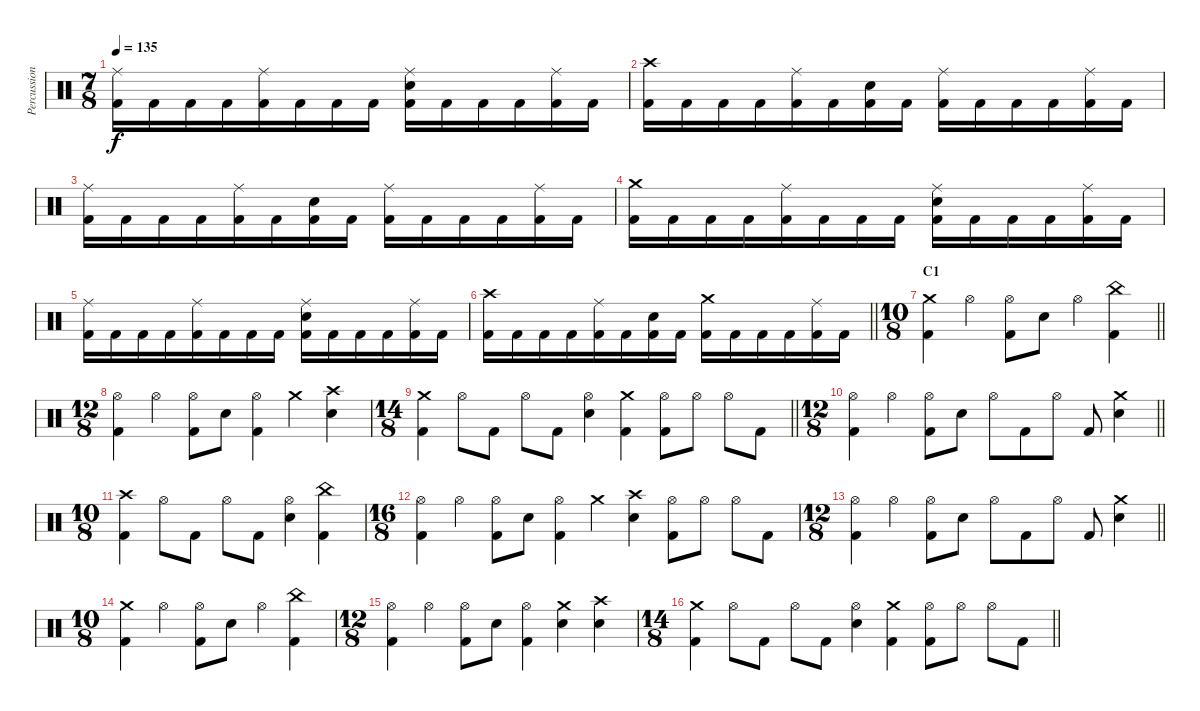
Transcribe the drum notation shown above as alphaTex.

\track ("Percussion" "Percussion") {instrument percussion}
\staff {score}
\articulation defaults
\ts (7 8)
\tempo 135
\clef neutral
\ks c
("Ride (middle)" "Kick (hit) 2").16{dy f} "Kick (hit) 2".16 "Kick (hit) 2".16 "Kick (hit) 2".16 ("Ride (middle)" "Kick (hit) 2").16 "Kick (hit) 2".16 "Kick (hit) 2".16 "Kick (hit) 2".16 ("Ride (middle)" "Snare (hit) 2" "Kick (hit) 2").16 "Kick (hit) 2".16 "Kick (hit) 2".16 "Kick (hit) 2".16 ("Ride (middle)" "Kick (hit) 2").16 "Kick (hit) 2".16 |
("Crash high (hit)" "Kick (hit) 2").16 "Kick (hit) 2".16 "Kick (hit) 2".16 "Kick (hit) 2".16 ("Ride (middle)" "Kick (hit) 2").16 "Kick (hit) 2".16 ("Snare (hit) 2" "Kick (hit) 2").16 "Kick (hit) 2".16 ("Ride (middle)" "Kick (hit) 2").16 "Kick (hit) 2".16 "Kick (hit) 2".16 "Kick (hit) 2".16 ("Ride (middle)" "Kick (hit) 2").16 "Kick (hit) 2".16 |
("Ride (middle)" "Kick (hit) 2").16 "Kick (hit) 2".16 "Kick (hit) 2".16 "Kick (hit) 2".16 ("Ride (middle)" "Kick (hit) 2").16 "Kick (hit) 2".16 ("Snare (hit) 2" "Kick (hit) 2").16 "Kick (hit) 2".16 ("Ride (middle)" "Kick (hit) 2").16 "Kick (hit) 2".16 "Kick (hit) 2".16 "Kick (hit) 2".16 ("Ride (middle)" "Kick (hit) 2").16 "Kick (hit) 2".16 |
("Crash medium (hit)" "Kick (hit) 2").16 "Kick (hit) 2".16 "Kick (hit) 2".16 "Kick (hit) 2".16 ("Ride (middle)" "Kick (hit) 2").16 "Kick (hit) 2".16 "Kick (hit) 2".16 "Kick (hit) 2".16 ("Ride (middle)" "Snare (hit) 2" "Kick (hit) 2").16 "Kick (hit) 2".16 "Kick (hit) 2".16 "Kick (hit) 2".16 ("Ride (middle)" "Kick (hit) 2").16 "Kick (hit) 2".16 |
("Ride (middle)" "Kick (hit) 2").16 "Kick (hit) 2".16 "Kick (hit) 2".16 "Kick (hit) 2".16 ("Ride (middle)" "Kick (hit) 2").16 "Kick (hit) 2".16 "Kick (hit) 2".16 "Kick (hit) 2".16 ("Ride (middle)" "Snare (hit) 2" "Kick (hit) 2").16 "Kick (hit) 2".16 "Kick (hit) 2".16 "Kick (hit) 2".16 ("Ride (middle)" "Kick (hit) 2").16 "Kick (hit) 2".16 |
\barLineRight lightlight
("Crash high (hit)" "Kick (hit) 2").16 "Kick (hit) 2".16 "Kick (hit) 2".16 "Kick (hit) 2".16 ("Ride (middle)" "Kick (hit) 2").16 "Kick (hit) 2".16 ("Snare (hit) 2" "Kick (hit) 2").16 "Kick (hit) 2".16 ("Crash medium (hit)" "Kick (hit) 2").16 "Kick (hit) 2".16 "Kick (hit) 2".16 "Kick (hit) 2".16 ("Ride (middle)" "Kick (hit) 2").16 "Kick (hit) 2".16 |
\ts (10 8)
\section ("" "C1")
\barLineRight lightlight
("Crash medium (hit)" "Kick (hit) 2").4 "Hi-Hat (open)".4 ("Hi-Hat (open)" "Kick (hit) 2").8 "Snare (hit) 2".8 "Hi-Hat (open)".4 ("China (hit)" "Kick (hit) 2").4 |
\ts (12 8)
("Hi-Hat (open)" "Kick (hit) 2").4 "Hi-Hat (open)".4 ("Hi-Hat (open)" "Kick (hit) 2").8 "Snare (hit) 2".8 ("Hi-Hat (open)" "Kick (hit) 2").4 "Crash medium (hit)".4 ("Crash high (hit)" "Snare (hit) 2").4 |
\ts (14 8)
\barLineRight lightlight
("Crash medium (hit)" "Kick (hit) 2").4 "Hi-Hat (open)".8 "Kick (hit) 2".8 "Hi-Hat (open)".8 "Kick (hit) 2".8 ("Hi-Hat (open)" "Snare (hit) 2").4 ("Crash medium (hit)" "Kick (hit) 2").4 ("Hi-Hat (open)" "Kick (hit) 2").8 "Hi-Hat (open)".8 "Hi-Hat (open)".8 "Kick (hit) 2".8 |
\ts (12 8)
\section ("" "")
\barLineRight lightlight
("Hi-Hat (open)" "Kick (hit) 2").4 "Hi-Hat (open)".4 ("Hi-Hat (open)" "Kick (hit) 2").8 "Snare (hit) 2".8 "Hi-Hat (open)".8 "Kick (hit) 2".8 "Hi-Hat (open)".8 "Kick (hit) 2".8 ("Crash medium (hit)" "Snare (hit) 2").4 |
\ts (10 8)
("Crash high (hit)" "Kick (hit) 2").4 "Hi-Hat (open)".8 "Kick (hit) 2".8 "Hi-Hat (open)".8 "Kick (hit) 2".8 ("Hi-Hat (open)" "Snare (hit) 2").4 ("China (hit)" "Kick (hit) 2").4 |
\ts (16 8)
("Hi-Hat (open)" "Kick (hit) 2").4 "Hi-Hat (open)".4 ("Hi-Hat (open)" "Kick (hit) 2").8 "Snare (hit) 2".8 ("Hi-Hat (open)" "Kick (hit) 2").4 "Crash medium (hit)".4 ("Crash high (hit)" "Snare (hit) 2").4 ("Hi-Hat (open)" "Kick (hit) 2").8 "Hi-Hat (open)".8 "Hi-Hat (open)".8 "Kick (hit) 2".8 |
\ts (12 8)
\barLineRight lightlight
("Hi-Hat (open)" "Kick (hit) 2").4 "Hi-Hat (open)".4 ("Hi-Hat (open)" "Kick (hit) 2").8 "Snare (hit) 2".8 "Hi-Hat (open)".8 "Kick (hit) 2".8 "Hi-Hat (open)".8 "Kick (hit) 2".8 ("Crash medium (hit)" "Snare (hit) 2").4 |
\ts (10 8)
\section ("" "")
("Crash medium (hit)" "Kick (hit) 2").4 "Hi-Hat (open)".4 ("Hi-Hat (open)" "Kick (hit) 2").8 "Snare (hit) 2".8 "Hi-Hat (open)".4 ("China (hit)" "Kick (hit) 2").4 |
\ts (12 8)
("Hi-Hat (open)" "Kick (hit) 2").4 "Hi-Hat (open)".4 ("Hi-Hat (open)" "Kick (hit) 2").8 "Snare (hit) 2".8 ("Hi-Hat (open)" "Kick (hit) 2").4 ("Crash medium (hit)" "Snare (hit) 2").4 ("Crash high (hit)" "Snare (hit) 2").4 |
\ts (14 8)
\barLineRight lightlight
("Crash medium (hit)" "Kick (hit) 2").4 "Hi-Hat (open)".8 "Kick (hit) 2".8 "Hi-Hat (open)".8 "Kick (hit) 2".8 ("Hi-Hat (open)" "Snare (hit) 2").4 ("Crash medium (hit)" "Kick (hit) 2").4 ("Hi-Hat (open)" "Kick (hit) 2").8 "Hi-Hat (open)".8 "Hi-Hat (open)".8 "Kick (hit) 2".8
